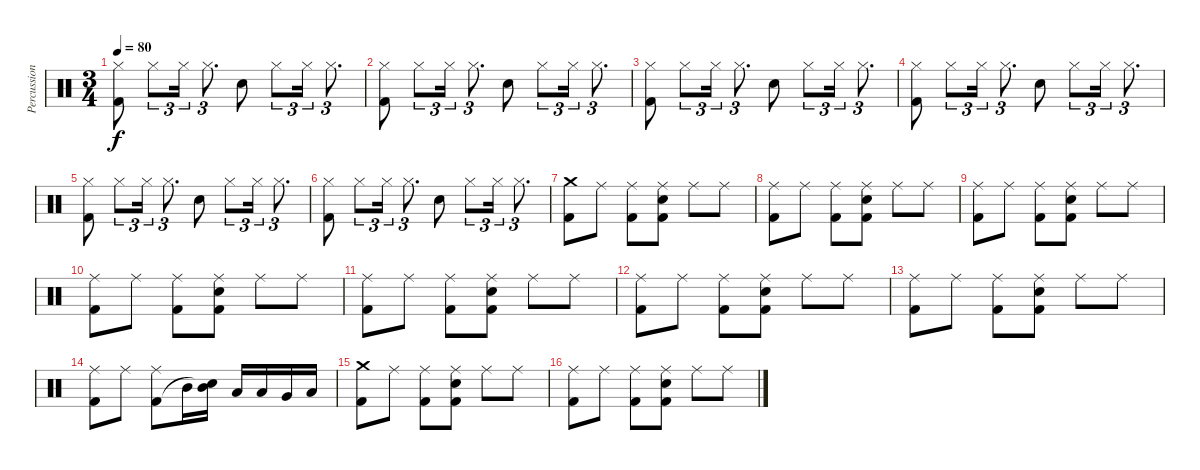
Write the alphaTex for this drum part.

\track ("Percussion" "Percussion") {instrument percussion}
\staff {score}
\articulation defaults
\ts (3 4)
\tempo 80
\clef neutral
\ks c
("Hi-Hat (closed)" "Kick (hit) 2").8{dy f} "Hi-Hat (closed)".8{tu (3 2)} "Hi-Hat (closed)".16{tu (3 2)} "Hi-Hat (closed)".8{d tu (3 2)} "Snare (hit) 2".8 "Hi-Hat (closed)".8{tu (3 2)} "Hi-Hat (closed)".16{tu (3 2)} "Hi-Hat (closed)".8{d tu (3 2)} |
("Hi-Hat (closed)" "Kick (hit) 2").8 "Hi-Hat (closed)".8{tu (3 2)} "Hi-Hat (closed)".16{tu (3 2)} "Hi-Hat (closed)".8{d tu (3 2)} "Snare (hit) 2".8 "Hi-Hat (closed)".8{tu (3 2)} "Hi-Hat (closed)".16{tu (3 2)} "Hi-Hat (closed)".8{d tu (3 2)} |
("Hi-Hat (closed)" "Kick (hit) 2").8 "Hi-Hat (closed)".8{tu (3 2)} "Hi-Hat (closed)".16{tu (3 2)} "Hi-Hat (closed)".8{d tu (3 2)} "Snare (hit) 2".8 "Hi-Hat (closed)".8{tu (3 2)} "Hi-Hat (closed)".16{tu (3 2)} "Hi-Hat (closed)".8{d tu (3 2)} |
("Hi-Hat (closed)" "Kick (hit) 2").8 "Hi-Hat (closed)".8{tu (3 2)} "Hi-Hat (closed)".16{tu (3 2)} "Hi-Hat (closed)".8{d tu (3 2)} "Snare (hit) 2".8 "Hi-Hat (closed)".8{tu (3 2)} "Hi-Hat (closed)".16{tu (3 2)} "Hi-Hat (closed)".8{d tu (3 2)} |
("Hi-Hat (closed)" "Kick (hit) 2").8 "Hi-Hat (closed)".8{tu (3 2)} "Hi-Hat (closed)".16{tu (3 2)} "Hi-Hat (closed)".8{d tu (3 2)} "Snare (hit) 2".8 "Hi-Hat (closed)".8{tu (3 2)} "Hi-Hat (closed)".16{tu (3 2)} "Hi-Hat (closed)".8{d tu (3 2)} |
("Hi-Hat (closed)" "Kick (hit) 2").8 "Hi-Hat (closed)".8{tu (3 2)} "Hi-Hat (closed)".16{tu (3 2)} "Hi-Hat (closed)".8{d tu (3 2)} "Snare (hit) 2".8 "Hi-Hat (closed)".8{tu (3 2)} "Hi-Hat (closed)".16{tu (3 2)} "Hi-Hat (closed)".8{d tu (3 2)} |
("Crash medium (hit)" "Kick (hit) 2").8 "Ride (middle)".8 ("Ride (middle)" "Kick (hit) 2").8 ("Ride (middle)" "Snare (hit) 2" "Kick (hit) 2").8 "Ride (middle)".8 "Ride (middle)".8 |
("Ride (middle)" "Kick (hit) 2").8 "Ride (middle)".8 ("Ride (middle)" "Kick (hit) 2").8 ("Ride (middle)" "Snare (hit) 2" "Kick (hit) 2").8 "Ride (middle)".8 "Ride (middle)".8 |
("Ride (middle)" "Kick (hit) 2").8 "Ride (middle)".8 ("Ride (middle)" "Kick (hit) 2").8 ("Ride (middle)" "Snare (hit) 2" "Kick (hit) 2").8 "Ride (middle)".8 "Ride (middle)".8 |
("Ride (middle)" "Kick (hit) 2").8 "Ride (middle)".8 ("Ride (middle)" "Kick (hit) 2").8 ("Ride (middle)" "Snare (hit) 2" "Kick (hit) 2").8 "Ride (middle)".8 "Ride (middle)".8 |
("Ride (middle)" "Kick (hit) 2").8 "Ride (middle)".8 ("Ride (middle)" "Kick (hit) 2").8 ("Ride (middle)" "Snare (hit) 2" "Kick (hit) 2").8 "Ride (middle)".8 "Ride (middle)".8 |
("Ride (middle)" "Kick (hit) 2").8 "Ride (middle)".8 ("Ride (middle)" "Kick (hit) 2").8 ("Ride (middle)" "Snare (hit) 2" "Kick (hit) 2").8 "Ride (middle)".8 "Ride (middle)".8 |
("Ride (middle)" "Kick (hit) 2").8 "Ride (middle)".8 ("Ride (middle)" "Kick (hit) 2").8 ("Ride (middle)" "Snare (hit) 2" "Kick (hit) 2").8 "Ride (middle)".8 "Ride (middle)".8 |
("Ride (middle)" "Kick (hit) 2").8 "Ride (middle)".8 ("Ride (middle)" "Kick (hit) 2").8 "Mid Tom (hit)".16 ("Mid Tom (hit)" "Snare (hit)"{t}).16 "Low Tom (hit)".16 "Low Tom (hit)".16 "Very Low Tom (hit)".16 "Low Floor Tom (hit)".16 |
("Crash medium (hit)" "Kick (hit) 2").8 "Ride (middle)".8 ("Ride (middle)" "Kick (hit) 2").8 ("Ride (middle)" "Snare (hit) 2" "Kick (hit) 2").8 "Ride (middle)".8 "Ride (middle)".8 |
("Ride (middle)" "Kick (hit) 2").8 "Ride (middle)".8 ("Ride (middle)" "Kick (hit) 2").8 ("Ride (middle)" "Snare (hit) 2" "Kick (hit) 2").8 "Ride (middle)".8 "Ride (middle)".8
